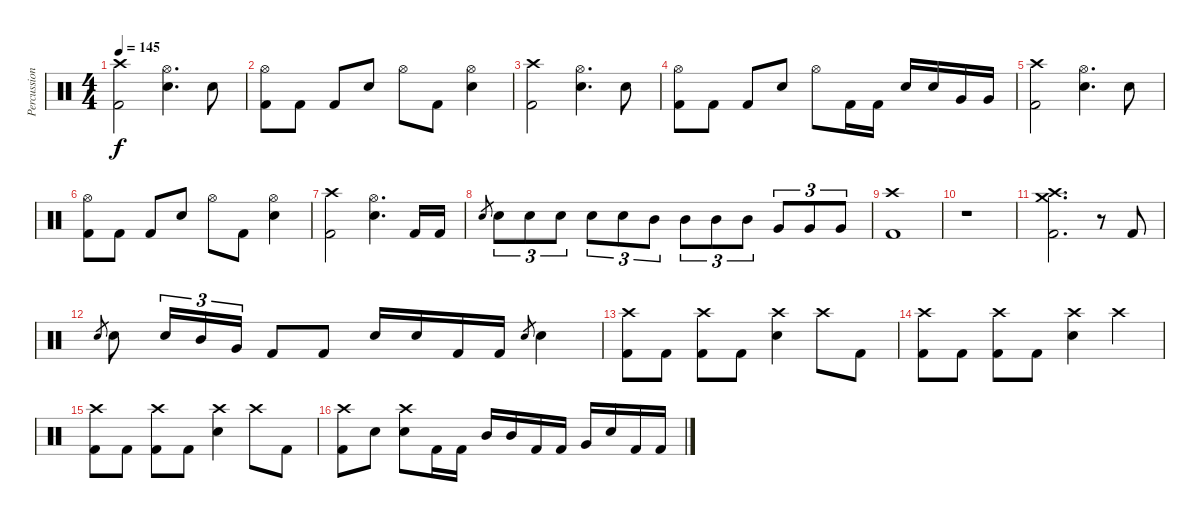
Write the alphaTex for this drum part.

\track ("Percussion" "Percussion") {instrument percussion}
\staff {score}
\articulation defaults
\ts (4 4)
\tempo 145
\clef neutral
\ks c
("Crash high (hit)" "Kick (hit) 2").2{dy f} ("Hi-Hat (open)" "Snare (hit) 2").4{d} "Snare (hit) 2".8 |
("Hi-Hat (open)" "Kick (hit) 2").8 "Kick (hit) 2".8 "Kick (hit) 2".8 "Snare (hit) 2".8 "Hi-Hat (open)".8 "Kick (hit) 2".8 ("Hi-Hat (open)" "Snare (hit) 2").4 |
("Crash high (hit)" "Kick (hit) 2").2 ("Hi-Hat (open)" "Snare (hit) 2").4{d} "Snare (hit) 2".8 |
("Hi-Hat (open)" "Kick (hit) 2").8 "Kick (hit) 2".8 "Kick (hit) 2".8 "Snare (hit) 2".8 "Hi-Hat (open)".8 "Kick (hit) 2".16 "Kick (hit) 2".16 "Snare (hit) 2".16 "Snare (hit) 2".16 "Very Low Tom (hit)".16 "Very Low Tom (hit)".16 |
("Crash high (hit)" "Kick (hit) 2").2 ("Hi-Hat (open)" "Snare (hit) 2").4{d} "Snare (hit) 2".8 |
("Hi-Hat (open)" "Kick (hit) 2").8 "Kick (hit) 2".8 "Kick (hit) 2".8 "Snare (hit) 2".8 "Hi-Hat (open)".8 "Kick (hit) 2".8 ("Hi-Hat (open)" "Snare (hit) 2").4 |
("Crash high (hit)" "Kick (hit) 2").2 ("Hi-Hat (open)" "Snare (hit) 2").4{d} "Kick (hit) 2".16 "Kick (hit) 2".16 |
"Snare (hit) 2".8{gr} "Snare (hit) 2".8{tu (3 2)} "Snare (hit) 2".8{tu (3 2)} "Snare (hit) 2".8{tu (3 2)} "Snare (hit) 2".8{tu (3 2)} "Snare (hit) 2".8{tu (3 2)} "Mid Tom (hit)".8{tu (3 2)} "Mid Tom (hit)".8{tu (3 2)} "Mid Tom (hit)".8{tu (3 2)} "Mid Tom (hit)".8{tu (3 2)} "Very Low Tom (hit)".8{tu (3 2)} "Very Low Tom (hit)".8{tu (3 2)} "Very Low Tom (hit)".8{tu (3 2)} |
("Crash high (hit)" "Kick (hit) 2").1 |
r.1 |
("Crash high (hit)" "Crash medium (hit)" "Kick (hit) 2").2{d} r.8 "Kick (hit) 2".8 |
"Snare (hit) 2".8{gr} "Snare (hit) 2".8 "Snare (hit) 2".16{tu (3 2)} "Mid Tom (hit)".16{tu (3 2)} "Very Low Tom (hit)".16{tu (3 2)} "Kick (hit) 2".8 "Kick (hit) 2".8 "Snare (hit) 2".16 "Snare (hit) 2".16 "Kick (hit) 2".16 "Kick (hit) 2".16 "Snare (hit) 2".8{gr} "Snare (hit) 2".4 |
("Crash high (hit)" "Kick (hit) 2").8 "Kick (hit) 2".8 ("Crash high (hit)" "Kick (hit) 2").8 "Kick (hit) 2".8 ("Crash high (hit)" "Snare (hit) 2").4 "Crash high (hit)".8 "Kick (hit) 2".8 |
("Crash high (hit)" "Kick (hit) 2").8 "Kick (hit) 2".8 ("Crash high (hit)" "Kick (hit) 2").8 "Kick (hit) 2".8 ("Crash high (hit)" "Snare (hit) 2").4 "Crash high (hit)".4 |
("Crash high (hit)" "Kick (hit) 2").8 "Kick (hit) 2".8 ("Crash high (hit)" "Kick (hit) 2").8 "Kick (hit) 2".8 ("Crash high (hit)" "Snare (hit) 2").4 "Crash high (hit)".8 "Kick (hit) 2".8 |
("Crash high (hit)" "Kick (hit) 2").8 "Snare (hit) 2".8 ("Crash high (hit)" "Snare (hit) 2").8 "Kick (hit) 2".16 "Kick (hit) 2".16 "Mid Tom (hit)".16 "Mid Tom (hit)".16 "Kick (hit) 2".16 "Kick (hit) 2".16 "Very Low Tom (hit)".16 "Snare (hit) 2".16 "Kick (hit) 2".16 "Kick (hit) 2".16
